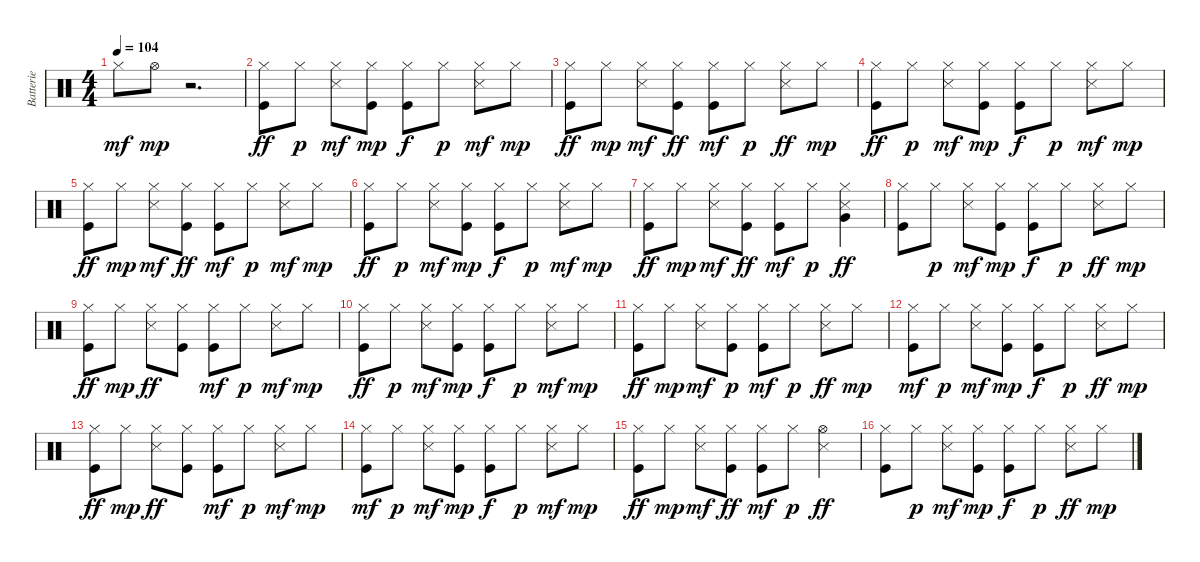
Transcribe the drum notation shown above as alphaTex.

\track ("Batterie" "Batterie") {instrument percussion}
\staff {score}
\articulation defaults
\ts (4 4)
\tempo 104
\clef neutral
\ks c "Hi-Hat (closed)".8{dy mf} "Hi-Hat (open)".8{dy mp}
r.2{d} |
("Hi-Hat (closed)" "Kick (hit)").8{dy ff} "Hi-Hat (closed)".8{dy p} ("Snare (side stick) 3" "Hi-Hat (closed)").8{dy mf} ("Hi-Hat (closed)" "Kick (hit)").8{dy mp} ("Hi-Hat (closed)" "Kick (hit)").8{dy f} "Hi-Hat (closed)".8{dy p} ("Snare (side stick) 3" "Hi-Hat (closed)").8{dy mf} "Hi-Hat (closed)".8{dy mp} |
("Hi-Hat (closed)" "Kick (hit)").8{dy ff} "Hi-Hat (closed)".8{dy mp} ("Snare (side stick) 3" "Hi-Hat (closed)").8{dy mf} ("Hi-Hat (closed)" "Kick (hit)").8{dy ff} ("Kick (hit)" "Hi-Hat (closed)").8{dy mf} "Hi-Hat (closed)".8{dy p} ("Hi-Hat (closed)" "Snare (side stick) 3").8{dy ff} "Hi-Hat (closed)".8{dy mp} |
("Hi-Hat (closed)" "Kick (hit)").8{dy ff} "Hi-Hat (closed)".8{dy p} ("Snare (side stick) 3" "Hi-Hat (closed)").8{dy mf} ("Kick (hit)" "Hi-Hat (closed)").8{dy mp} ("Hi-Hat (closed)" "Kick (hit)").8{dy f} "Hi-Hat (closed)".8{dy p} ("Snare (side stick) 3" "Hi-Hat (closed)").8{dy mf} "Hi-Hat (closed)".8{dy mp} |
("Hi-Hat (closed)" "Kick (hit)").8{dy ff} "Hi-Hat (closed)".8{dy mp} ("Snare (side stick) 3" "Hi-Hat (closed)").8{dy mf} ("Hi-Hat (closed)" "Kick (hit)").8{dy ff} ("Hi-Hat (closed)" "Kick (hit)").8{dy mf} "Hi-Hat (closed)".8{dy p} ("Snare (side stick) 3" "Hi-Hat (closed)").8{dy mf} "Hi-Hat (closed)".8{dy mp} |
("Hi-Hat (closed)" "Kick (hit)").8{dy ff} "Hi-Hat (closed)".8{dy p} ("Hi-Hat (closed)" "Snare (side stick) 3").8{dy mf} ("Hi-Hat (closed)" "Kick (hit)").8{dy mp} ("Kick (hit)" "Hi-Hat (closed)").8{dy f} "Hi-Hat (closed)".8{dy p} ("Snare (side stick) 3" "Hi-Hat (closed)").8{dy mf} "Hi-Hat (closed)".8{dy mp} |
("Hi-Hat (closed)" "Kick (hit)").8{dy ff} "Hi-Hat (closed)".8{dy mp} ("Snare (side stick) 3" "Hi-Hat (closed)").8{dy mf} ("Hi-Hat (closed)" "Kick (hit)").8{dy ff} ("Hi-Hat (closed)" "Kick (hit)").8{dy mf} "Hi-Hat (closed)".8{dy p} ("Hi-Hat (closed)" "Very Low Tom (hit)" "Snare (side stick) 3").4{dy ff} |
("Hi-Hat (closed)" "Kick (hit)").8 "Hi-Hat (closed)".8{dy p} ("Snare (side stick) 3" "Hi-Hat (closed)").8{dy mf} ("Hi-Hat (closed)" "Kick (hit)").8{dy mp} ("Hi-Hat (closed)" "Kick (hit)").8{dy f} "Hi-Hat (closed)".8{dy p} ("Hi-Hat (closed)" "Snare (side stick) 3").8{dy ff} "Hi-Hat (closed)".8{dy mp} |
("Kick (hit)" "Hi-Hat (closed)").8{dy ff} "Hi-Hat (closed)".8{dy mp} ("Hi-Hat (closed)" "Snare (side stick) 3").8{dy ff} ("Hi-Hat (closed)" "Kick (hit)").8 ("Hi-Hat (closed)" "Kick (hit)").8{dy mf} "Hi-Hat (closed)".8{dy p} ("Snare (side stick) 3" "Hi-Hat (closed)").8{dy mf} "Hi-Hat (closed)".8{dy mp} |
("Hi-Hat (closed)" "Kick (hit)").8{dy ff} "Hi-Hat (closed)".8{dy p} ("Hi-Hat (closed)" "Snare (side stick) 3").8{dy mf} ("Kick (hit)" "Hi-Hat (closed)").8{dy mp} ("Hi-Hat (closed)" "Kick (hit)").8{dy f} "Hi-Hat (closed)".8{dy p} ("Snare (side stick) 3" "Hi-Hat (closed)").8{dy mf} "Hi-Hat (closed)".8{dy mp} |
("Hi-Hat (closed)" "Kick (hit)").8{dy ff} "Hi-Hat (closed)".8{dy mp} ("Snare (side stick) 3" "Hi-Hat (closed)").8{dy mf} ("Kick (hit)" "Hi-Hat (closed)").8{dy p} ("Kick (hit)" "Hi-Hat (closed)").8{dy mf} "Hi-Hat (closed)".8{dy p} ("Hi-Hat (closed)" "Snare (side stick) 3").8{dy ff} "Hi-Hat (closed)".8{dy mp} |
("Kick (hit)" "Hi-Hat (closed)").8{dy mf} "Hi-Hat (closed)".8{dy p} ("Hi-Hat (closed)" "Snare (side stick) 3").8{dy mf} ("Kick (hit)" "Hi-Hat (closed)").8{dy mp} ("Kick (hit)" "Hi-Hat (closed)").8{dy f} "Hi-Hat (closed)".8{dy p} ("Hi-Hat (closed)" "Snare (side stick) 3").8{dy ff} "Hi-Hat (closed)".8{dy mp} |
("Hi-Hat (closed)" "Kick (hit)").8{dy ff} "Hi-Hat (closed)".8{dy mp} ("Hi-Hat (closed)" "Snare (side stick) 3").8{dy ff} ("Hi-Hat (closed)" "Kick (hit)").8 ("Kick (hit)" "Hi-Hat (closed)").8{dy mf} "Hi-Hat (closed)".8{dy p} ("Snare (side stick) 3" "Hi-Hat (closed)").8{dy mf} "Hi-Hat (closed)".8{dy mp} |
("Kick (hit)" "Hi-Hat (closed)").8{dy mf} "Hi-Hat (closed)".8{dy p} ("Snare (side stick) 3" "Hi-Hat (closed)").8{dy mf} ("Hi-Hat (closed)" "Kick (hit)").8{dy mp} ("Hi-Hat (closed)" "Kick (hit)").8{dy f} "Hi-Hat (closed)".8{dy p} ("Snare (side stick) 3" "Hi-Hat (closed)").8{dy mf} "Hi-Hat (closed)".8{dy mp} |
("Kick (hit)" "Hi-Hat (closed)").8{dy ff} "Hi-Hat (closed)".8{dy mp} ("Snare (side stick) 3" "Hi-Hat (closed)").8{dy mf} ("Hi-Hat (closed)" "Kick (hit)").8{dy ff} ("Kick (hit)" "Hi-Hat (closed)").8{dy mf} "Hi-Hat (closed)".8{dy p} ("Hi-Hat (open)" "Snare (side stick) 3").4{dy ff} |
("Hi-Hat (closed)" "Kick (hit)").8 "Hi-Hat (closed)".8{dy p} ("Hi-Hat (closed)" "Snare (side stick) 3").8{dy mf} ("Hi-Hat (closed)" "Kick (hit)").8{dy mp} ("Hi-Hat (closed)" "Kick (hit)").8{dy f} "Hi-Hat (closed)".8{dy p} ("Hi-Hat (closed)" "Snare (side stick) 3").8{dy ff} "Hi-Hat (closed)".8{dy mp}
